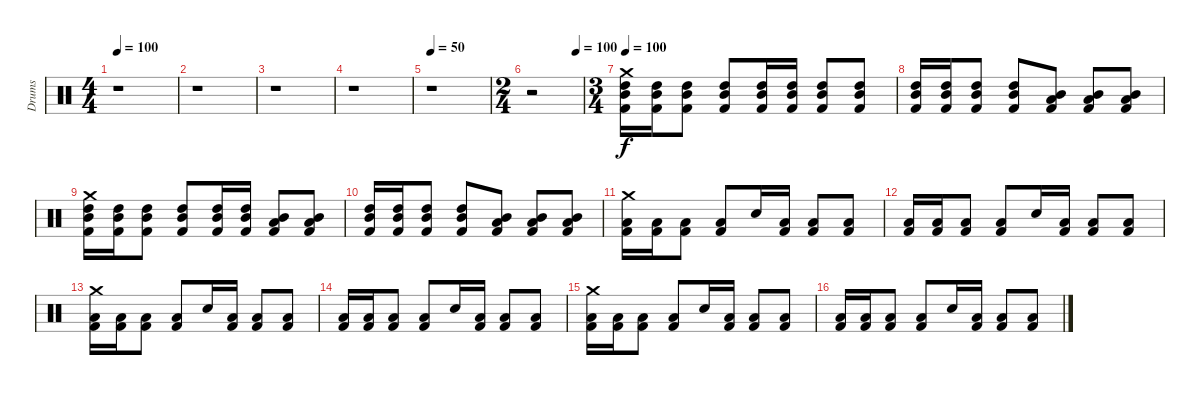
\track ("Drums" "Drums") {instrument percussion}
\staff {score}
\articulation defaults
\ts (4 4)
\tempo 100
\clef neutral
\ks c
r.1{dy f} |
r.1 |
r.1 |
r.1 |
\tempo 50
r.1 |
\ts (2 4)
\tempo (100 0.875)
r.2 |
\ts (3 4)
\tempo 100
("Crash medium (hit)" "Kick (hit) 2" "High Tom (hit)" "Mid Tom (hit)").16 ("Kick (hit) 2" "High Tom (hit)" "Mid Tom (hit)").16 ("Kick (hit) 2" "High Tom (hit)" "Mid Tom (hit)").8 ("Kick (hit) 2" "High Tom (hit)" "Mid Tom (hit)").8 ("Kick (hit) 2" "High Tom (hit)" "Mid Tom (hit)").16 ("Kick (hit) 2" "High Tom (hit)" "Mid Tom (hit)").16 ("Kick (hit) 2" "High Tom (hit)" "Mid Tom (hit)").8 ("Kick (hit) 2" "High Tom (hit)" "Mid Tom (hit)").8 |
("Kick (hit) 2" "High Tom (hit)" "Mid Tom (hit)").16 ("Kick (hit) 2" "High Tom (hit)" "Mid Tom (hit)").16 ("Kick (hit) 2" "High Tom (hit)" "Mid Tom (hit)").8 ("Kick (hit) 2" "High Tom (hit)" "Mid Tom (hit)").8 ("Kick (hit) 2" "Mid Tom (hit)" "Low Tom (hit)").8 ("Kick (hit) 2" "Mid Tom (hit)" "Low Tom (hit)").8 ("Kick (hit) 2" "Mid Tom (hit)" "Low Tom (hit)").8 |
("Crash medium (hit)" "Kick (hit) 2" "High Tom (hit)" "Mid Tom (hit)").16 ("Kick (hit) 2" "High Tom (hit)" "Mid Tom (hit)").16 ("Kick (hit) 2" "High Tom (hit)" "Mid Tom (hit)").8 ("Kick (hit) 2" "High Tom (hit)" "Mid Tom (hit)").8 ("Kick (hit) 2" "High Tom (hit)" "Mid Tom (hit)").16 ("Kick (hit) 2" "High Tom (hit)" "Mid Tom (hit)").16 ("Kick (hit) 2" "Mid Tom (hit)" "Low Tom (hit)").8 ("Kick (hit) 2" "Mid Tom (hit)" "Low Tom (hit)").8 |
("Kick (hit) 2" "High Tom (hit)" "Mid Tom (hit)").16 ("Kick (hit) 2" "High Tom (hit)" "Mid Tom (hit)").16 ("Kick (hit) 2" "High Tom (hit)" "Mid Tom (hit)").8 ("Kick (hit) 2" "High Tom (hit)" "Mid Tom (hit)").8 ("Kick (hit) 2" "Mid Tom (hit)" "Low Tom (hit)").8 ("Kick (hit) 2" "Mid Tom (hit)" "Low Tom (hit)").8 ("Kick (hit) 2" "Mid Tom (hit)" "Low Tom (hit)").8 |
("Crash medium (hit)" "Kick (hit) 2" "Low Tom (hit)").16 ("Kick (hit) 2" "Low Tom (hit)").16 ("Kick (hit) 2" "Low Tom (hit)").8 ("Kick (hit) 2" "Low Tom (hit)").8 "Electric Snare (hit)".16 ("Kick (hit) 2" "Low Tom (hit)").16 ("Kick (hit) 2" "Low Tom (hit)").8 ("Kick (hit) 2" "Low Tom (hit)").8 |
("Kick (hit) 2" "Low Tom (hit)").16 ("Kick (hit) 2" "Low Tom (hit)").16 ("Kick (hit) 2" "Low Tom (hit)").8 ("Kick (hit) 2" "Low Tom (hit)").8 "Electric Snare (hit)".16 ("Kick (hit) 2" "Low Tom (hit)").16 ("Kick (hit) 2" "Low Tom (hit)").8 ("Kick (hit) 2" "Low Tom (hit)").8 |
("Crash medium (hit)" "Kick (hit) 2" "Low Tom (hit)").16 ("Kick (hit) 2" "Low Tom (hit)").16 ("Kick (hit) 2" "Low Tom (hit)").8 ("Kick (hit) 2" "Low Tom (hit)").8 "Electric Snare (hit)".16 ("Kick (hit) 2" "Low Tom (hit)").16 ("Kick (hit) 2" "Low Tom (hit)").8 ("Kick (hit) 2" "Low Tom (hit)").8 |
("Kick (hit) 2" "Low Tom (hit)").16 ("Kick (hit) 2" "Low Tom (hit)").16 ("Kick (hit) 2" "Low Tom (hit)").8 ("Kick (hit) 2" "Low Tom (hit)").8 "Electric Snare (hit)".16 ("Kick (hit) 2" "Low Tom (hit)").16 ("Kick (hit) 2" "Low Tom (hit)").8 ("Kick (hit) 2" "Low Tom (hit)").8 |
("Crash medium (hit)" "Kick (hit) 2" "Low Tom (hit)").16 ("Kick (hit) 2" "Low Tom (hit)").16 ("Kick (hit) 2" "Low Tom (hit)").8 ("Kick (hit) 2" "Low Tom (hit)").8 "Electric Snare (hit)".16 ("Kick (hit) 2" "Low Tom (hit)").16 ("Kick (hit) 2" "Low Tom (hit)").8 ("Kick (hit) 2" "Low Tom (hit)").8 |
("Kick (hit) 2" "Low Tom (hit)").16 ("Kick (hit) 2" "Low Tom (hit)").16 ("Kick (hit) 2" "Low Tom (hit)").8 ("Kick (hit) 2" "Low Tom (hit)").8 "Electric Snare (hit)".16 ("Kick (hit) 2" "Low Tom (hit)").16 ("Kick (hit) 2" "Low Tom (hit)").8 ("Kick (hit) 2" "Low Tom (hit)").8
